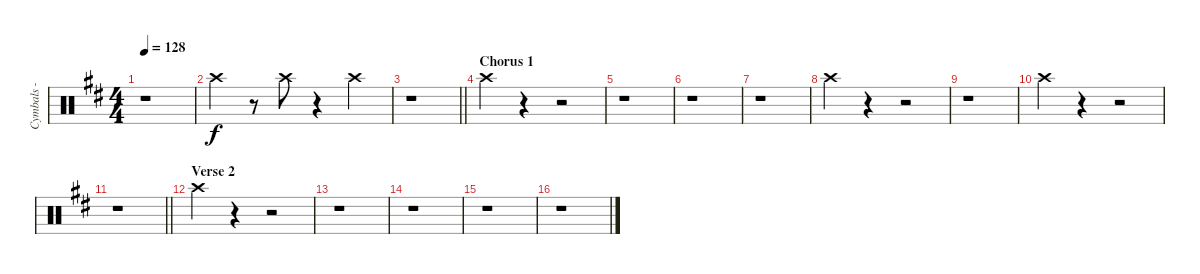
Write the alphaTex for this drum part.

\track ("Cymbals - crash" "Cymbals - ") {instrument percussion}
\staff {score}
\articulation defaults
\ts (4 4)
\tempo 128
\clef neutral
\ks bminor
r.1{dy f} |
"Crash high (hit)".4 r.8 "Crash high (hit)".8 r.4 "Crash high (hit)".4 |
\barLineRight lightlight
r.1 |
\section ("" "Chorus 1")
"Crash high (hit)".4 r.4 r.2 |
r.1 |
r.1 |
r.1 |
"Crash high (hit)".4 r.4 r.2 |
r.1 |
"Crash high (hit)".4 r.4 r.2 |
\barLineRight lightlight
r.1 |
\section ("" "Verse 2")
"Crash high (hit)".4 r.4 r.2 |
r.1 |
r.1 |
r.1 |
r.1
